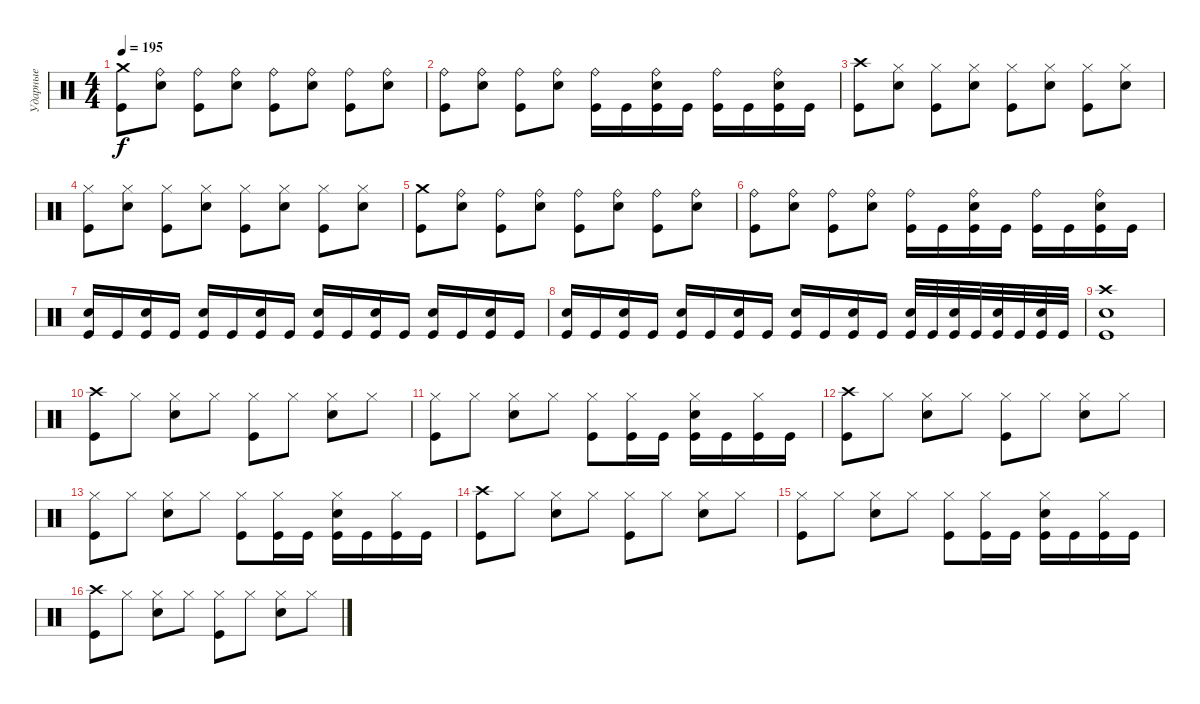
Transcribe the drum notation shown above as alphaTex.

\track ("Ударные" "Ударные") {instrument percussion}
\staff {score}
\articulation defaults
\ts (4 4)
\tempo 195
\clef neutral
\ks c
("Crash medium (hit)" "Kick (hit)").8{dy f} ("Ride (bell)" "Electric Snare (hit)").8 ("Ride (bell)" "Kick (hit)").8 ("Ride (bell)" "Electric Snare (hit)").8 ("Ride (bell)" "Kick (hit)").8 ("Ride (bell)" "Electric Snare (hit)").8 ("Ride (bell)" "Kick (hit)").8 ("Ride (bell)" "Electric Snare (hit)").8 |
("Ride (bell)" "Kick (hit)").8 ("Ride (bell)" "Electric Snare (hit)").8 ("Ride (bell)" "Kick (hit)").8 ("Ride (bell)" "Electric Snare (hit)").8 ("Ride (bell)" "Kick (hit)").16 "Kick (hit)".16 ("Ride (bell)" "Electric Snare (hit)" "Kick (hit)").16 "Kick (hit)".16 ("Ride (bell)" "Kick (hit)").16 "Kick (hit)".16 ("Ride (bell)" "Electric Snare (hit)" "Kick (hit)").16 "Kick (hit)".16 |
("Crash high (hit)" "Kick (hit)").8 ("Hi-Hat (closed)" "Electric Snare (hit)").8 ("Hi-Hat (closed)" "Kick (hit)").8 ("Hi-Hat (closed)" "Electric Snare (hit)").8 ("Hi-Hat (closed)" "Kick (hit)").8 ("Hi-Hat (closed)" "Electric Snare (hit)").8 ("Hi-Hat (closed)" "Kick (hit)").8 ("Hi-Hat (closed)" "Electric Snare (hit)").8 |
("Hi-Hat (closed)" "Kick (hit)").8 ("Hi-Hat (closed)" "Electric Snare (hit)").8 ("Hi-Hat (closed)" "Kick (hit)").8 ("Hi-Hat (closed)" "Electric Snare (hit)").8 ("Hi-Hat (closed)" "Kick (hit)").8 ("Hi-Hat (closed)" "Electric Snare (hit)").8 ("Hi-Hat (closed)" "Kick (hit)").8 ("Hi-Hat (closed)" "Electric Snare (hit)").8 |
("Crash medium (hit)" "Kick (hit)").8 ("Ride (bell)" "Electric Snare (hit)").8 ("Ride (bell)" "Kick (hit)").8 ("Ride (bell)" "Electric Snare (hit)").8 ("Ride (bell)" "Kick (hit)").8 ("Ride (bell)" "Electric Snare (hit)").8 ("Ride (bell)" "Kick (hit)").8 ("Ride (bell)" "Electric Snare (hit)").8 |
("Ride (bell)" "Kick (hit)").8 ("Ride (bell)" "Electric Snare (hit)").8 ("Ride (bell)" "Kick (hit)").8 ("Ride (bell)" "Electric Snare (hit)").8 ("Ride (bell)" "Kick (hit)").16 "Kick (hit)".16 ("Ride (bell)" "Electric Snare (hit)" "Kick (hit)").16 "Kick (hit)".16 ("Ride (bell)" "Kick (hit)").16 "Kick (hit)".16 ("Ride (bell)" "Electric Snare (hit)" "Kick (hit)").16 "Kick (hit)".16 |
("Electric Snare (hit)" "Kick (hit)").16 "Kick (hit)".16 ("Electric Snare (hit)" "Kick (hit)").16 "Kick (hit)".16 ("Electric Snare (hit)" "Kick (hit)").16 "Kick (hit)".16 ("Electric Snare (hit)" "Kick (hit)").16 "Kick (hit)".16 ("Electric Snare (hit)" "Kick (hit)").16 "Kick (hit)".16 ("Electric Snare (hit)" "Kick (hit)").16 "Kick (hit)".16 ("Electric Snare (hit)" "Kick (hit)").16 "Kick (hit)".16 ("Electric Snare (hit)" "Kick (hit)").16 "Kick (hit)".16 |
("Electric Snare (hit)" "Kick (hit)").16 "Kick (hit)".16 ("Electric Snare (hit)" "Kick (hit)").16 "Kick (hit)".16 ("Electric Snare (hit)" "Kick (hit)").16 "Kick (hit)".16 ("Electric Snare (hit)" "Kick (hit)").16 "Kick (hit)".16 ("Electric Snare (hit)" "Kick (hit)").16 "Kick (hit)".16 ("Electric Snare (hit)" "Kick (hit)").16 "Kick (hit)".16 ("Electric Snare (hit)" "Kick (hit)").32 "Kick (hit)".32 ("Electric Snare (hit)" "Kick (hit)").32 "Kick (hit)".32 ("Electric Snare (hit)" "Kick (hit)").32 "Kick (hit)".32 ("Electric Snare (hit)" "Kick (hit)").32 "Kick (hit)".32 |
("Crash high (hit)" "Electric Snare (hit)" "Kick (hit)").1 |
("Crash high (hit)" "Kick (hit)").8 "Hi-Hat (closed)".8 ("Hi-Hat (closed)" "Electric Snare (hit)").8 "Hi-Hat (closed)".8 ("Hi-Hat (closed)" "Kick (hit)").8 "Hi-Hat (closed)".8 ("Hi-Hat (closed)" "Electric Snare (hit)").8 "Hi-Hat (closed)".8 |
("Hi-Hat (closed)" "Kick (hit)").8 "Hi-Hat (closed)".8 ("Hi-Hat (closed)" "Electric Snare (hit)").8 "Hi-Hat (closed)".8 ("Hi-Hat (closed)" "Kick (hit)").8 ("Hi-Hat (closed)" "Kick (hit)").16 "Kick (hit)".16 ("Hi-Hat (closed)" "Electric Snare (hit)" "Kick (hit)").16 "Kick (hit)".16 ("Hi-Hat (closed)" "Kick (hit)").16 "Kick (hit)".16 |
("Crash high (hit)" "Kick (hit)").8 "Hi-Hat (closed)".8 ("Hi-Hat (closed)" "Electric Snare (hit)").8 "Hi-Hat (closed)".8 ("Hi-Hat (closed)" "Kick (hit)").8 "Hi-Hat (closed)".8 ("Hi-Hat (closed)" "Electric Snare (hit)").8 "Hi-Hat (closed)".8 |
("Hi-Hat (closed)" "Kick (hit)").8 "Hi-Hat (closed)".8 ("Hi-Hat (closed)" "Electric Snare (hit)").8 "Hi-Hat (closed)".8 ("Hi-Hat (closed)" "Kick (hit)").8 ("Hi-Hat (closed)" "Kick (hit)").16 "Kick (hit)".16 ("Hi-Hat (closed)" "Electric Snare (hit)" "Kick (hit)").16 "Kick (hit)".16 ("Hi-Hat (closed)" "Kick (hit)").16 "Kick (hit)".16 |
("Crash high (hit)" "Kick (hit)").8 "Hi-Hat (closed)".8 ("Hi-Hat (closed)" "Electric Snare (hit)").8 "Hi-Hat (closed)".8 ("Hi-Hat (closed)" "Kick (hit)").8 "Hi-Hat (closed)".8 ("Hi-Hat (closed)" "Electric Snare (hit)").8 "Hi-Hat (closed)".8 |
("Hi-Hat (closed)" "Kick (hit)").8 "Hi-Hat (closed)".8 ("Hi-Hat (closed)" "Electric Snare (hit)").8 "Hi-Hat (closed)".8 ("Hi-Hat (closed)" "Kick (hit)").8 ("Hi-Hat (closed)" "Kick (hit)").16 "Kick (hit)".16 ("Hi-Hat (closed)" "Electric Snare (hit)" "Kick (hit)").16 "Kick (hit)".16 ("Hi-Hat (closed)" "Kick (hit)").16 "Kick (hit)".16 |
("Crash high (hit)" "Kick (hit)").8 "Hi-Hat (closed)".8 ("Hi-Hat (closed)" "Electric Snare (hit)").8 "Hi-Hat (closed)".8 ("Hi-Hat (closed)" "Kick (hit)").8 "Hi-Hat (closed)".8 ("Hi-Hat (closed)" "Electric Snare (hit)").8 "Hi-Hat (closed)".8
